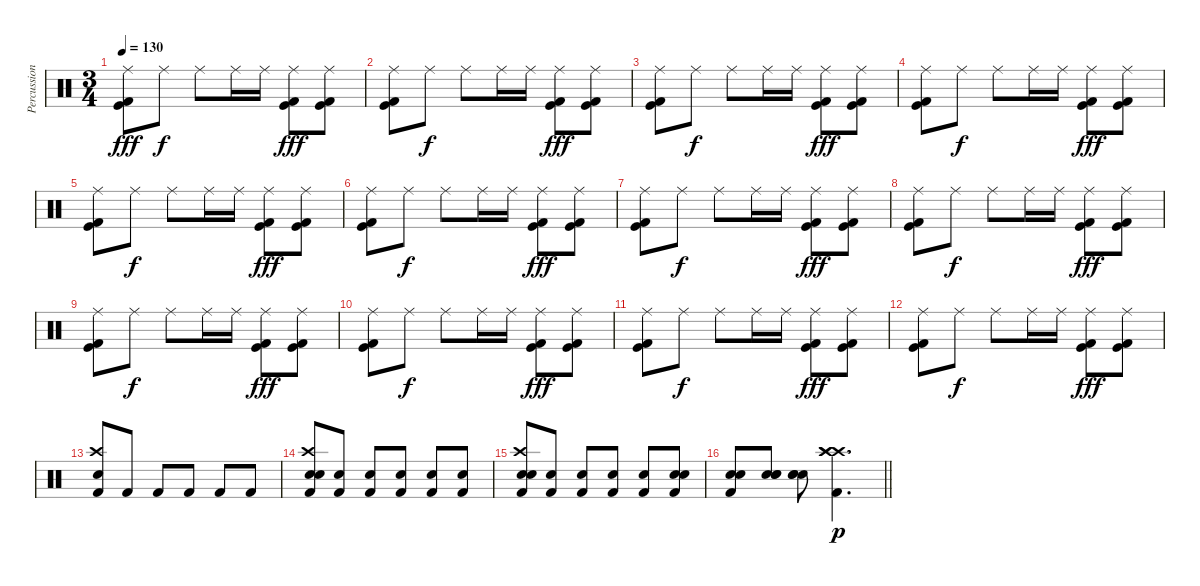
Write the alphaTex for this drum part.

\track ("Percussion" "Percussion") {instrument percussion}
\staff {score}
\articulation defaults
\ts (3 4)
\tempo 130
\clef neutral
\ks c
("Ride (middle)" "Kick (hit)" "Kick (hit) 2").8{dy fff} "Ride (middle)".8{dy f} "Ride (middle)".8 "Ride (middle)".16 "Ride (middle)".16 ("Ride (middle)" "Kick (hit)" "Kick (hit) 2").8{dy fff} ("Ride (middle)" "Kick (hit)" "Kick (hit) 2").8 |
("Ride (middle)" "Kick (hit)" "Kick (hit) 2").8 "Ride (middle)".8{dy f} "Ride (middle)".8 "Ride (middle)".16 "Ride (middle)".16 ("Ride (middle)" "Kick (hit)" "Kick (hit) 2").8{dy fff} ("Ride (middle)" "Kick (hit)" "Kick (hit) 2").8 |
("Ride (middle)" "Kick (hit)" "Kick (hit) 2").8 "Ride (middle)".8{dy f} "Ride (middle)".8 "Ride (middle)".16 "Ride (middle)".16 ("Ride (middle)" "Kick (hit)" "Kick (hit) 2").8{dy fff} ("Ride (middle)" "Kick (hit)" "Kick (hit) 2").8 |
("Ride (middle)" "Kick (hit)" "Kick (hit) 2").8 "Ride (middle)".8{dy f} "Ride (middle)".8 "Ride (middle)".16 "Ride (middle)".16 ("Ride (middle)" "Kick (hit)" "Kick (hit) 2").8{dy fff} ("Ride (middle)" "Kick (hit)" "Kick (hit) 2").8 |
("Ride (middle)" "Kick (hit)" "Kick (hit) 2").8 "Ride (middle)".8{dy f} "Ride (middle)".8 "Ride (middle)".16 "Ride (middle)".16 ("Ride (middle)" "Kick (hit)" "Kick (hit) 2").8{dy fff} ("Ride (middle)" "Kick (hit)" "Kick (hit) 2").8 |
("Ride (middle)" "Kick (hit)" "Kick (hit) 2").8 "Ride (middle)".8{dy f} "Ride (middle)".8 "Ride (middle)".16 "Ride (middle)".16 ("Ride (middle)" "Kick (hit)" "Kick (hit) 2").8{dy fff} ("Ride (middle)" "Kick (hit)" "Kick (hit) 2").8 |
("Ride (middle)" "Kick (hit)" "Kick (hit) 2").8 "Ride (middle)".8{dy f} "Ride (middle)".8 "Ride (middle)".16 "Ride (middle)".16 ("Ride (middle)" "Kick (hit)" "Kick (hit) 2").8{dy fff} ("Ride (middle)" "Kick (hit)" "Kick (hit) 2").8 |
("Ride (middle)" "Kick (hit)" "Kick (hit) 2").8 "Ride (middle)".8{dy f} "Ride (middle)".8 "Ride (middle)".16 "Ride (middle)".16 ("Ride (middle)" "Kick (hit)" "Kick (hit) 2").8{dy fff} ("Ride (middle)" "Kick (hit)" "Kick (hit) 2").8 |
("Ride (middle)" "Kick (hit)" "Kick (hit) 2").8 "Ride (middle)".8{dy f} "Ride (middle)".8 "Ride (middle)".16 "Ride (middle)".16 ("Ride (middle)" "Kick (hit)" "Kick (hit) 2").8{dy fff} ("Ride (middle)" "Kick (hit)" "Kick (hit) 2").8 |
("Ride (middle)" "Kick (hit)" "Kick (hit) 2").8 "Ride (middle)".8{dy f} "Ride (middle)".8 "Ride (middle)".16 "Ride (middle)".16 ("Ride (middle)" "Kick (hit)" "Kick (hit) 2").8{dy fff} ("Ride (middle)" "Kick (hit)" "Kick (hit) 2").8 |
("Ride (middle)" "Kick (hit)" "Kick (hit) 2").8 "Ride (middle)".8{dy f} "Ride (middle)".8 "Ride (middle)".16 "Ride (middle)".16 ("Ride (middle)" "Kick (hit)" "Kick (hit) 2").8{dy fff} ("Ride (middle)" "Kick (hit)" "Kick (hit) 2").8 |
("Ride (middle)" "Kick (hit)" "Kick (hit) 2").8 "Ride (middle)".8{dy f} "Ride (middle)".8 "Ride (middle)".16 "Ride (middle)".16 ("Ride (middle)" "Kick (hit)" "Kick (hit) 2").8{dy fff} ("Ride (middle)" "Kick (hit)" "Kick (hit) 2").8 |
("Crash high (hit)" "Snare (hit) 2" "Kick (hit) 2").8 "Kick (hit) 2".8 "Kick (hit) 2".8 "Kick (hit) 2".8 "Kick (hit) 2".8 "Kick (hit) 2".8 |
("Crash high (hit)" "Snare (hit) 2" "Electric Snare (hit)" "Kick (hit) 2").8 ("Electric Snare (hit)" "Kick (hit) 2").8 ("Electric Snare (hit)" "Kick (hit) 2").8 ("Electric Snare (hit)" "Kick (hit) 2").8 ("Electric Snare (hit)" "Kick (hit) 2").8 ("Electric Snare (hit)" "Kick (hit) 2").8 |
("Crash high (hit)" "Snare (hit) 2" "Electric Snare (hit)" "Kick (hit) 2").8 ("Electric Snare (hit)" "Kick (hit) 2").8 ("Electric Snare (hit)" "Kick (hit) 2").8 ("Electric Snare (hit)" "Kick (hit) 2").8 ("Electric Snare (hit)" "Kick (hit) 2").8 ("Snare (hit) 2" "Electric Snare (hit)" "Kick (hit) 2").8 |
\barLineRight lightlight
("Snare (hit) 2" "Electric Snare (hit)" "Kick (hit) 2").8 ("Electric Snare (hit)" "Snare (hit) 2" "Electric Snare (hit)").8 ("Electric Snare (hit)" "Snare (hit) 2" "Electric Snare (hit)").8 ("Crash high (hit)" "Crash high (hit)" "Crash high (hit)" "Kick (hit) 2").4{d dy p}
